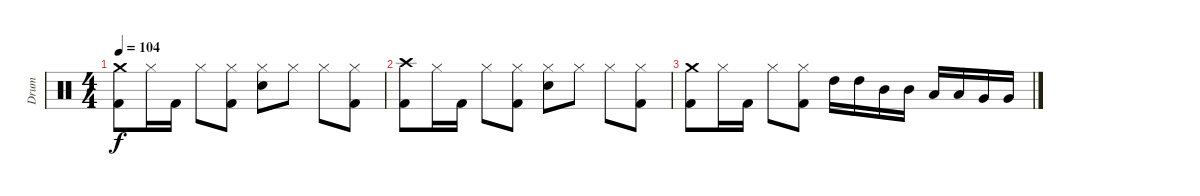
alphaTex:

\track ("Drum" "Drum") {instrument percussion}
\staff {score}
\articulation defaults
\ts (4 4)
\tempo 104
\clef neutral
\ks c
("Crash medium (hit)" "Kick (hit) 2").8{dy f} "Hi-Hat (closed)".16 "Kick (hit) 2".16 "Hi-Hat (closed)".8 ("Hi-Hat (closed)" "Kick (hit) 2").8 ("Hi-Hat (closed)" "Snare (hit) 2").8 "Hi-Hat (closed)".8 "Hi-Hat (closed)".8 ("Hi-Hat (closed)" "Kick (hit) 2").8 |
("Crash high (hit)" "Kick (hit) 2").8 "Hi-Hat (closed)".16 "Kick (hit) 2".16 "Hi-Hat (closed)".8 ("Hi-Hat (closed)" "Kick (hit) 2").8 ("Hi-Hat (closed)" "Snare (hit) 2").8 "Hi-Hat (closed)".8 "Hi-Hat (closed)".8 ("Hi-Hat (closed)" "Kick (hit) 2").8 |
("Crash medium (hit)" "Kick (hit) 2").8 "Hi-Hat (closed)".16 "Kick (hit) 2".16 "Hi-Hat (closed)".8 ("Hi-Hat (closed)" "Kick (hit) 2").8 "High Tom (hit)".16 "High Tom (hit)".16 "Mid Tom (hit)".16 "Mid Tom (hit)".16 "Low Tom (hit)".16 "Low Tom (hit)".16 "Very Low Tom (hit)".16 "Very Low Tom (hit)".16
